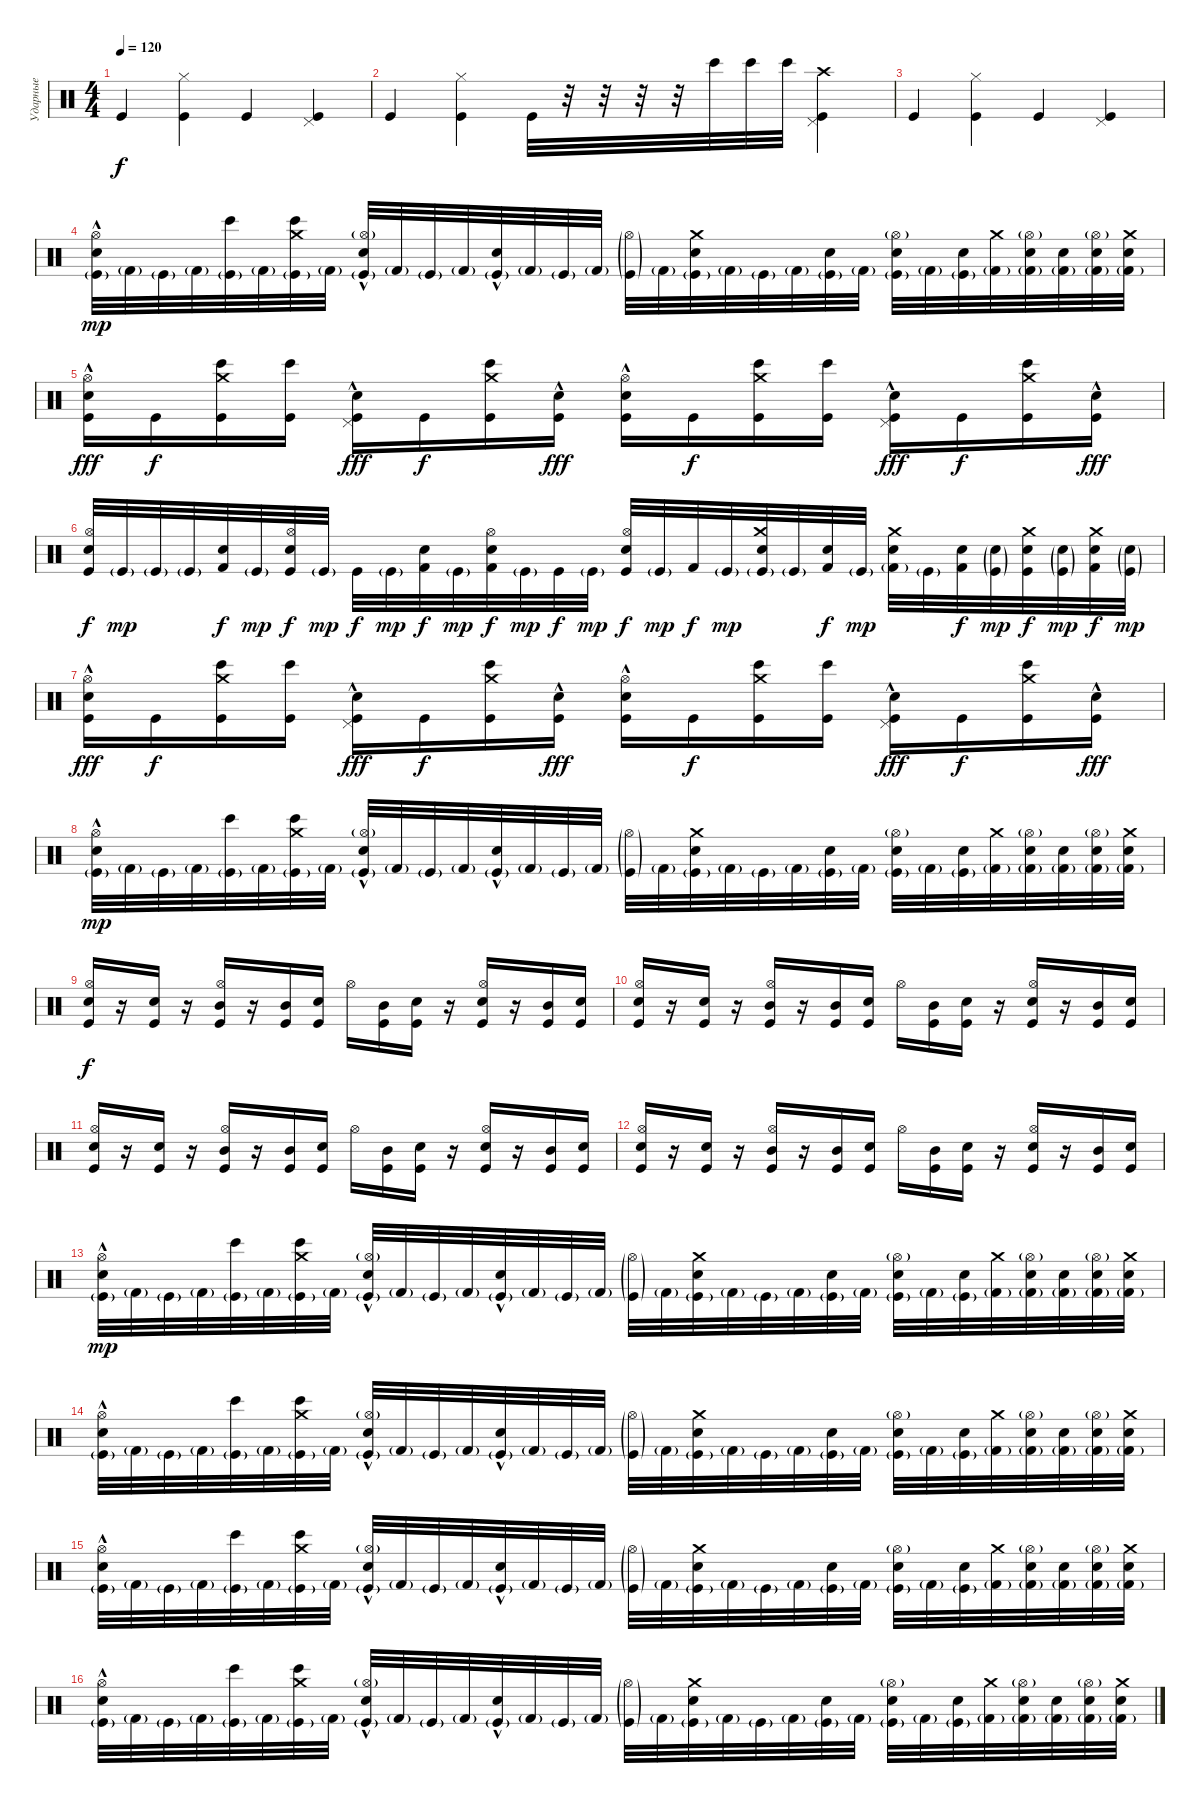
\track ("Ударные" "Ударные") {instrument percussion}
\staff {score}
\articulation defaults
\ts (4 4)
\tempo 120
\clef neutral
\ks c "Kick (hit)".4{dy f}
("Hi-Hat (closed)" "Kick (hit)").4 "Kick (hit)".4 ("Pedal Hi-Hat (hit)" "Kick (hit)").4 |
"Kick (hit)".4 ("Hi-Hat (closed)" "Kick (hit)").4 "Kick (hit)".32 r.32 r.32 r.32 r.32 "Bongo High (hit)".32 "Bongo High (hit)".32 "Bongo High (hit)".32 ("Crash high (hit)" "Pedal Hi-Hat (hit)" "Kick (hit)").4 |
"Kick (hit)".4 ("Hi-Hat (closed)" "Kick (hit)").4 "Kick (hit)".4 ("Pedal Hi-Hat (hit)" "Kick (hit)").4 |
("Hi-Hat (open)" "Snare (hit) 2"{hac} "Kick (hit)"{g}).32{dy mp} "Kick (hit) 2"{g}.32 "Kick (hit)"{g}.32 "Kick (hit) 2"{g}.32 ("Bongo High (hit)" "Kick (hit)"{g}).32 "Kick (hit) 2"{g}.32 ("Crash medium (hit)" "Bongo High (hit)" "Kick (hit)"{g}).32 "Kick (hit) 2"{g}.32 ("Hi-Hat (open)"{g} "Electric Snare (hit)"{hac} "Kick (hit)"{g}).32 "Kick (hit) 2"{g}.32 "Kick (hit)"{g}.32 "Kick (hit) 2"{g}.32 ("Snare (hit) 2"{hac} "Kick (hit)"{g}).32 "Kick (hit) 2"{g}.32 "Kick (hit)"{g}.32 "Kick (hit) 2"{g}.32 ("Hi-Hat (open)"{g} "Kick (hit)"{g}).32 "Kick (hit) 2"{g}.32 ("Crash medium (hit)" "Snare (hit) 2" "Kick (hit)"{g}).32 "Kick (hit) 2"{g}.32 "Kick (hit)"{g}.32 "Kick (hit) 2"{g}.32 ("Snare (hit) 2" "Kick (hit)"{g}).32 "Kick (hit) 2"{g}.32 ("Hi-Hat (open)"{g} "Electric Snare (hit)" "Kick (hit)"{g}).32 "Kick (hit) 2"{g}.32 ("Electric Snare (hit)" "Kick (hit)"{g}).32 ("Crash medium (hit)" "Kick (hit) 2"{g}).32 ("Hi-Hat (open)"{g} "Electric Snare (hit)" "Kick (hit) 2"{g}).32 ("Electric Snare (hit)" "Kick (hit) 2"{g}).32 ("Hi-Hat (open)"{g} "Electric Snare (hit)" "Kick (hit) 2"{g}).32 ("Crash medium (hit)" "Electric Snare (hit)" "Kick (hit) 2"{g}).32 |
("Hi-Hat (open)" "Electric Snare (hit)"{hac} "Kick (hit)").16{dy fff} "Kick (hit)".16{dy f} ("Crash medium (hit)" "Bongo High (hit)" "Kick (hit)").16 ("Bongo High (hit)" "Kick (hit)").16 ("Pedal Hi-Hat (hit)" "Snare (hit) 2"{hac} "Kick (hit)").16{dy fff} "Kick (hit)".16{dy f} ("Crash medium (hit)" "Bongo High (hit)" "Kick (hit)").16 ("Electric Snare (hit)"{hac} "Kick (hit)").16{dy fff} ("Hi-Hat (open)" "Electric Snare (hit)"{hac} "Kick (hit)").16 "Kick (hit)".16{dy f} ("Crash medium (hit)" "Bongo High (hit)" "Kick (hit)").16 ("Bongo High (hit)" "Kick (hit)").16 ("Pedal Hi-Hat (hit)" "Snare (hit) 2"{hac} "Kick (hit)").16{dy fff} "Kick (hit)".16{dy f} ("Crash medium (hit)" "Bongo High (hit)" "Kick (hit)").16 ("Electric Snare (hit)"{hac} "Kick (hit)").16{dy fff} |
("Hi-Hat (open)" "Snare (hit) 2" "Kick (hit)").32{dy f} "Kick (hit)"{g}.32{dy mp} "Kick (hit)"{g}.32 "Kick (hit)"{g}.32 ("Electric Snare (hit)" "Kick (hit) 2").32{dy f} "Kick (hit)"{g}.32{dy mp} ("Hi-Hat (open)" "Snare (hit) 2" "Kick (hit)").32{dy f} "Kick (hit)"{g}.32{dy mp} "Kick (hit)".32{dy f} "Kick (hit)"{g}.32{dy mp} ("Electric Snare (hit)" "Kick (hit) 2").32{dy f} "Kick (hit)"{g}.32{dy mp} ("Hi-Hat (open)" "Electric Snare (hit)" "Kick (hit) 2").32{dy f} "Kick (hit)"{g}.32{dy mp} "Kick (hit)".32{dy f} "Kick (hit)"{g}.32{dy mp} ("Hi-Hat (open)" "Electric Snare (hit)" "Kick (hit)").32{dy f} "Kick (hit)"{g}.32{dy mp} "Kick (hit) 2".32{dy f} "Kick (hit)"{g}.32{dy mp} ("Crash medium (hit)" "Electric Snare (hit)" "Kick (hit)"{g}).32 "Kick (hit)"{g}.32 ("Electric Snare (hit)" "Kick (hit) 2").32{dy f} "Kick (hit)"{g}.32{dy mp} ("Crash medium (hit)" "Electric Snare (hit)" "Kick (hit) 2"{g}).32 "Kick (hit)"{g}.32 ("Snare (hit) 2" "Kick (hit) 2").32{dy f} ("Snare (hit) 2"{g} "Kick (hit)"{g}).32{dy mp} ("Crash medium (hit)" "Electric Snare (hit)" "Kick (hit)").32{dy f} ("Snare (hit) 2"{g} "Kick (hit)"{g}).32{dy mp} ("Crash medium (hit)" "Snare (hit) 2" "Kick (hit) 2").32{dy f} ("Snare (hit) 2"{g} "Kick (hit)"{g}).32{dy mp} |
("Hi-Hat (open)" "Electric Snare (hit)"{hac} "Kick (hit)").16{dy fff} "Kick (hit)".16{dy f} ("Crash medium (hit)" "Bongo High (hit)" "Kick (hit)").16 ("Bongo High (hit)" "Kick (hit)").16 ("Pedal Hi-Hat (hit)" "Snare (hit) 2"{hac} "Kick (hit)").16{dy fff} "Kick (hit)".16{dy f} ("Crash medium (hit)" "Bongo High (hit)" "Kick (hit)").16 ("Electric Snare (hit)"{hac} "Kick (hit)").16{dy fff} ("Hi-Hat (open)" "Electric Snare (hit)"{hac} "Kick (hit)").16 "Kick (hit)".16{dy f} ("Crash medium (hit)" "Bongo High (hit)" "Kick (hit)").16 ("Bongo High (hit)" "Kick (hit)").16 ("Pedal Hi-Hat (hit)" "Snare (hit) 2"{hac} "Kick (hit)").16{dy fff} "Kick (hit)".16{dy f} ("Crash medium (hit)" "Bongo High (hit)" "Kick (hit)").16 ("Electric Snare (hit)"{hac} "Kick (hit)").16{dy fff} |
("Hi-Hat (open)" "Snare (hit) 2"{hac} "Kick (hit)"{g}).32{dy mp} "Kick (hit) 2"{g}.32 "Kick (hit)"{g}.32 "Kick (hit) 2"{g}.32 ("Bongo High (hit)" "Kick (hit)"{g}).32 "Kick (hit) 2"{g}.32 ("Crash medium (hit)" "Bongo High (hit)" "Kick (hit)"{g}).32 "Kick (hit) 2"{g}.32 ("Hi-Hat (open)"{g} "Electric Snare (hit)"{hac} "Kick (hit)"{g}).32 "Kick (hit) 2"{g}.32 "Kick (hit)"{g}.32 "Kick (hit) 2"{g}.32 ("Snare (hit) 2"{hac} "Kick (hit)"{g}).32 "Kick (hit) 2"{g}.32 "Kick (hit)"{g}.32 "Kick (hit) 2"{g}.32 ("Hi-Hat (open)"{g} "Kick (hit)"{g}).32 "Kick (hit) 2"{g}.32 ("Crash medium (hit)" "Snare (hit) 2" "Kick (hit)"{g}).32 "Kick (hit) 2"{g}.32 "Kick (hit)"{g}.32 "Kick (hit) 2"{g}.32 ("Snare (hit) 2" "Kick (hit)"{g}).32 "Kick (hit) 2"{g}.32 ("Hi-Hat (open)"{g} "Electric Snare (hit)" "Kick (hit)"{g}).32 "Kick (hit) 2"{g}.32 ("Electric Snare (hit)" "Kick (hit)"{g}).32 ("Crash medium (hit)" "Kick (hit) 2"{g}).32 ("Hi-Hat (open)"{g} "Electric Snare (hit)" "Kick (hit) 2"{g}).32 ("Electric Snare (hit)" "Kick (hit) 2"{g}).32 ("Hi-Hat (open)"{g} "Electric Snare (hit)" "Kick (hit) 2"{g}).32 ("Crash medium (hit)" "Electric Snare (hit)" "Kick (hit) 2"{g}).32 |
("Hi-Hat (open)" "Snare (hit) 2" "Kick (hit)").16{dy f} r.16 ("Snare (hit) 2" "Kick (hit)").16 r.16 ("Hi-Hat (open)" "Mid Tom (hit)" "Kick (hit)").16 r.16 ("Mid Tom (hit)" "Kick (hit)").16 ("Snare (hit) 2" "Kick (hit)").16 "Hi-Hat (open)".16 ("Mid Tom (hit)" "Kick (hit)").16 ("Snare (hit) 2" "Kick (hit)").16 r.16 ("Hi-Hat (open)" "Snare (hit) 2" "Kick (hit)").16 r.16 ("Mid Tom (hit)" "Kick (hit)").16 ("Snare (hit) 2" "Kick (hit)").16 |
("Hi-Hat (open)" "Snare (hit) 2" "Kick (hit)").16 r.16 ("Snare (hit) 2" "Kick (hit)").16 r.16 ("Hi-Hat (open)" "Mid Tom (hit)" "Kick (hit)").16 r.16 ("Mid Tom (hit)" "Kick (hit)").16 ("Snare (hit) 2" "Kick (hit)").16 "Hi-Hat (open)".16 ("Mid Tom (hit)" "Kick (hit)").16 ("Snare (hit) 2" "Kick (hit)").16 r.16 ("Hi-Hat (open)" "Snare (hit) 2" "Kick (hit)").16 r.16 ("Mid Tom (hit)" "Kick (hit)").16 ("Snare (hit) 2" "Kick (hit)").16 |
("Hi-Hat (open)" "Snare (hit) 2" "Kick (hit)").16 r.16 ("Snare (hit) 2" "Kick (hit)").16 r.16 ("Hi-Hat (open)" "Mid Tom (hit)" "Kick (hit)").16 r.16 ("Mid Tom (hit)" "Kick (hit)").16 ("Snare (hit) 2" "Kick (hit)").16 "Hi-Hat (open)".16 ("Mid Tom (hit)" "Kick (hit)").16 ("Snare (hit) 2" "Kick (hit)").16 r.16 ("Hi-Hat (open)" "Snare (hit) 2" "Kick (hit)").16 r.16 ("Mid Tom (hit)" "Kick (hit)").16 ("Snare (hit) 2" "Kick (hit)").16 |
("Hi-Hat (open)" "Snare (hit) 2" "Kick (hit)").16 r.16 ("Snare (hit) 2" "Kick (hit)").16 r.16 ("Hi-Hat (open)" "Mid Tom (hit)" "Kick (hit)").16 r.16 ("Mid Tom (hit)" "Kick (hit)").16 ("Snare (hit) 2" "Kick (hit)").16 "Hi-Hat (open)".16 ("Mid Tom (hit)" "Kick (hit)").16 ("Snare (hit) 2" "Kick (hit)").16 r.16 ("Hi-Hat (open)" "Snare (hit) 2" "Kick (hit)").16 r.16 ("Mid Tom (hit)" "Kick (hit)").16 ("Snare (hit) 2" "Kick (hit)").16 |
("Hi-Hat (open)" "Snare (hit) 2"{hac} "Kick (hit)"{g}).32{dy mp} "Kick (hit) 2"{g}.32 "Kick (hit)"{g}.32 "Kick (hit) 2"{g}.32 ("Bongo High (hit)" "Kick (hit)"{g}).32 "Kick (hit) 2"{g}.32 ("Crash medium (hit)" "Bongo High (hit)" "Kick (hit)"{g}).32 "Kick (hit) 2"{g}.32 ("Hi-Hat (open)"{g} "Electric Snare (hit)"{hac} "Kick (hit)"{g}).32 "Kick (hit) 2"{g}.32 "Kick (hit)"{g}.32 "Kick (hit) 2"{g}.32 ("Snare (hit) 2"{hac} "Kick (hit)"{g}).32 "Kick (hit) 2"{g}.32 "Kick (hit)"{g}.32 "Kick (hit) 2"{g}.32 ("Hi-Hat (open)"{g} "Kick (hit)"{g}).32 "Kick (hit) 2"{g}.32 ("Crash medium (hit)" "Snare (hit) 2" "Kick (hit)"{g}).32 "Kick (hit) 2"{g}.32 "Kick (hit)"{g}.32 "Kick (hit) 2"{g}.32 ("Snare (hit) 2" "Kick (hit)"{g}).32 "Kick (hit) 2"{g}.32 ("Hi-Hat (open)"{g} "Electric Snare (hit)" "Kick (hit)"{g}).32 "Kick (hit) 2"{g}.32 ("Electric Snare (hit)" "Kick (hit)"{g}).32 ("Crash medium (hit)" "Kick (hit) 2"{g}).32 ("Hi-Hat (open)"{g} "Electric Snare (hit)" "Kick (hit) 2"{g}).32 ("Electric Snare (hit)" "Kick (hit) 2"{g}).32 ("Hi-Hat (open)"{g} "Electric Snare (hit)" "Kick (hit) 2"{g}).32 ("Crash medium (hit)" "Electric Snare (hit)" "Kick (hit) 2"{g}).32 |
("Hi-Hat (open)" "Snare (hit) 2"{hac} "Kick (hit)"{g}).32 "Kick (hit) 2"{g}.32 "Kick (hit)"{g}.32 "Kick (hit) 2"{g}.32 ("Bongo High (hit)" "Kick (hit)"{g}).32 "Kick (hit) 2"{g}.32 ("Crash medium (hit)" "Bongo High (hit)" "Kick (hit)"{g}).32 "Kick (hit) 2"{g}.32 ("Hi-Hat (open)"{g} "Electric Snare (hit)"{hac} "Kick (hit)"{g}).32 "Kick (hit) 2"{g}.32 "Kick (hit)"{g}.32 "Kick (hit) 2"{g}.32 ("Snare (hit) 2"{hac} "Kick (hit)"{g}).32 "Kick (hit) 2"{g}.32 "Kick (hit)"{g}.32 "Kick (hit) 2"{g}.32 ("Hi-Hat (open)"{g} "Kick (hit)"{g}).32 "Kick (hit) 2"{g}.32 ("Crash medium (hit)" "Snare (hit) 2" "Kick (hit)"{g}).32 "Kick (hit) 2"{g}.32 "Kick (hit)"{g}.32 "Kick (hit) 2"{g}.32 ("Snare (hit) 2" "Kick (hit)"{g}).32 "Kick (hit) 2"{g}.32 ("Hi-Hat (open)"{g} "Electric Snare (hit)" "Kick (hit)"{g}).32 "Kick (hit) 2"{g}.32 ("Electric Snare (hit)" "Kick (hit)"{g}).32 ("Crash medium (hit)" "Kick (hit) 2"{g}).32 ("Hi-Hat (open)"{g} "Electric Snare (hit)" "Kick (hit) 2"{g}).32 ("Electric Snare (hit)" "Kick (hit) 2"{g}).32 ("Hi-Hat (open)"{g} "Electric Snare (hit)" "Kick (hit) 2"{g}).32 ("Crash medium (hit)" "Electric Snare (hit)" "Kick (hit) 2"{g}).32 |
("Hi-Hat (open)" "Snare (hit) 2"{hac} "Kick (hit)"{g}).32 "Kick (hit) 2"{g}.32 "Kick (hit)"{g}.32 "Kick (hit) 2"{g}.32 ("Bongo High (hit)" "Kick (hit)"{g}).32 "Kick (hit) 2"{g}.32 ("Crash medium (hit)" "Bongo High (hit)" "Kick (hit)"{g}).32 "Kick (hit) 2"{g}.32 ("Hi-Hat (open)"{g} "Electric Snare (hit)"{hac} "Kick (hit)"{g}).32 "Kick (hit) 2"{g}.32 "Kick (hit)"{g}.32 "Kick (hit) 2"{g}.32 ("Snare (hit) 2"{hac} "Kick (hit)"{g}).32 "Kick (hit) 2"{g}.32 "Kick (hit)"{g}.32 "Kick (hit) 2"{g}.32 ("Hi-Hat (open)"{g} "Kick (hit)"{g}).32 "Kick (hit) 2"{g}.32 ("Crash medium (hit)" "Snare (hit) 2" "Kick (hit)"{g}).32 "Kick (hit) 2"{g}.32 "Kick (hit)"{g}.32 "Kick (hit) 2"{g}.32 ("Snare (hit) 2" "Kick (hit)"{g}).32 "Kick (hit) 2"{g}.32 ("Hi-Hat (open)"{g} "Electric Snare (hit)" "Kick (hit)"{g}).32 "Kick (hit) 2"{g}.32 ("Electric Snare (hit)" "Kick (hit)"{g}).32 ("Crash medium (hit)" "Kick (hit) 2"{g}).32 ("Hi-Hat (open)"{g} "Electric Snare (hit)" "Kick (hit) 2"{g}).32 ("Electric Snare (hit)" "Kick (hit) 2"{g}).32 ("Hi-Hat (open)"{g} "Electric Snare (hit)" "Kick (hit) 2"{g}).32 ("Crash medium (hit)" "Electric Snare (hit)" "Kick (hit) 2"{g}).32 |
("Hi-Hat (open)" "Snare (hit) 2"{hac} "Kick (hit)"{g}).32 "Kick (hit) 2"{g}.32 "Kick (hit)"{g}.32 "Kick (hit) 2"{g}.32 ("Bongo High (hit)" "Kick (hit)"{g}).32 "Kick (hit) 2"{g}.32 ("Crash medium (hit)" "Bongo High (hit)" "Kick (hit)"{g}).32 "Kick (hit) 2"{g}.32 ("Hi-Hat (open)"{g} "Electric Snare (hit)"{hac} "Kick (hit)"{g}).32 "Kick (hit) 2"{g}.32 "Kick (hit)"{g}.32 "Kick (hit) 2"{g}.32 ("Snare (hit) 2"{hac} "Kick (hit)"{g}).32 "Kick (hit) 2"{g}.32 "Kick (hit)"{g}.32 "Kick (hit) 2"{g}.32 ("Hi-Hat (open)"{g} "Kick (hit)"{g}).32 "Kick (hit) 2"{g}.32 ("Crash medium (hit)" "Snare (hit) 2" "Kick (hit)"{g}).32 "Kick (hit) 2"{g}.32 "Kick (hit)"{g}.32 "Kick (hit) 2"{g}.32 ("Snare (hit) 2" "Kick (hit)"{g}).32 "Kick (hit) 2"{g}.32 ("Hi-Hat (open)"{g} "Electric Snare (hit)" "Kick (hit)"{g}).32 "Kick (hit) 2"{g}.32 ("Electric Snare (hit)" "Kick (hit)"{g}).32 ("Crash medium (hit)" "Kick (hit) 2"{g}).32 ("Hi-Hat (open)"{g} "Electric Snare (hit)" "Kick (hit) 2"{g}).32 ("Electric Snare (hit)" "Kick (hit) 2"{g}).32 ("Hi-Hat (open)"{g} "Electric Snare (hit)" "Kick (hit) 2"{g}).32 ("Crash medium (hit)" "Electric Snare (hit)" "Kick (hit) 2"{g}).32
